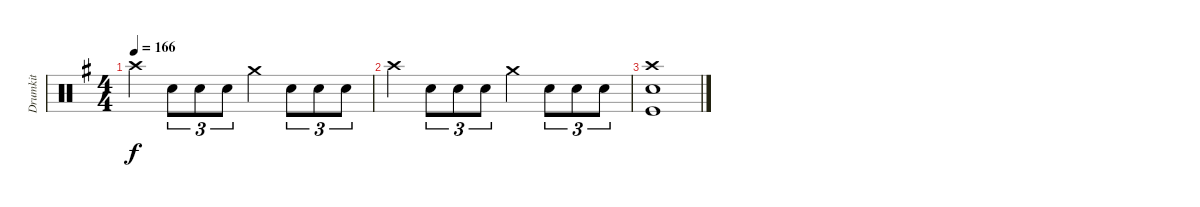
\track ("Drumkit" "Drumkit") {instrument percussion}
\staff {score}
\articulation defaults
\ts (4 4)
\tempo 166
\clef neutral
\ks g "Crash high (hit)".4{dy f} "Snare (hit) 2".8{tu (3 2)} "Snare (hit) 2".8{tu (3 2)} "Snare (hit) 2".8{tu (3 2)} "Crash medium (hit)".4 "Snare (hit) 2".8{tu (3 2)} "Snare (hit) 2".8{tu (3 2)} "Snare (hit) 2".8{tu (3 2)}
|
"Crash high (hit)".4 "Snare (hit) 2".8{tu (3 2)} "Snare (hit) 2".8{tu (3 2)} "Snare (hit) 2".8{tu (3 2)} "Crash medium (hit)".4 "Snare (hit) 2".8{tu (3 2)} "Snare (hit) 2".8{tu (3 2)} "Snare (hit) 2".8{tu (3 2)} |
("Crash high (hit)" "Snare (hit) 2" "Kick (hit)").1
